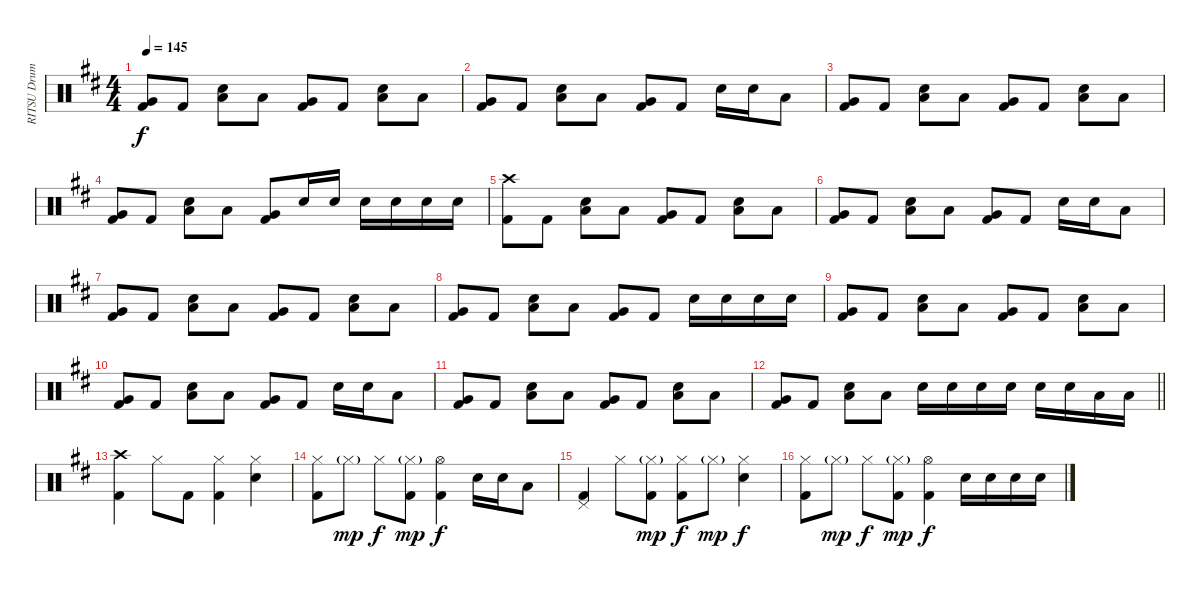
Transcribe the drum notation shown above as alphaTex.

\track ("RITSU Drums" "RITSU Drum") {instrument percussion}
\staff {score}
\articulation defaults
\ts (4 4)
\tempo 145
\clef neutral
\ks d
("Very Low Tom (hit)" "Kick (hit) 2").8{dy f} "Kick (hit) 2".8 ("Snare (hit) 2" "Low Floor Tom (hit)").8 "Low Tom (hit)".8 ("Very Low Tom (hit)" "Kick (hit) 2").8 "Kick (hit) 2".8 ("Snare (hit) 2" "Low Floor Tom (hit)").8 "Low Tom (hit)".8 |
("Very Low Tom (hit)" "Kick (hit) 2").8 "Kick (hit) 2".8 ("Snare (hit) 2" "Low Floor Tom (hit)").8 "Low Tom (hit)".8 ("Very Low Tom (hit)" "Kick (hit) 2").8 "Kick (hit) 2".8 "Snare (hit) 2".16 "Snare (hit) 2".16 "Low Tom (hit)".8 |
("Very Low Tom (hit)" "Kick (hit) 2").8 "Kick (hit) 2".8 ("Snare (hit) 2" "Low Floor Tom (hit)").8 "Low Tom (hit)".8 ("Very Low Tom (hit)" "Kick (hit) 2").8 "Kick (hit) 2".8 ("Snare (hit) 2" "Low Floor Tom (hit)").8 "Low Tom (hit)".8 |
("Very Low Tom (hit)" "Kick (hit) 2").8 "Kick (hit) 2".8 ("Snare (hit) 2" "Low Floor Tom (hit)").8 "Low Tom (hit)".8 ("Very Low Tom (hit)" "Kick (hit) 2").8 "Snare (hit) 2".16 "Snare (hit) 2".16 "Snare (hit) 2".16 "Snare (hit) 2".16 "Snare (hit) 2".16 "Snare (hit) 2".16 |
("Crash high (hit)" "Kick (hit) 2").8 "Kick (hit) 2".8 ("Snare (hit) 2" "Low Floor Tom (hit)").8 "Low Tom (hit)".8 ("Very Low Tom (hit)" "Kick (hit) 2").8 "Kick (hit) 2".8 ("Snare (hit) 2" "Low Floor Tom (hit)").8 "Low Tom (hit)".8 |
("Very Low Tom (hit)" "Kick (hit) 2").8 "Kick (hit) 2".8 ("Snare (hit) 2" "Low Floor Tom (hit)").8 "Low Tom (hit)".8 ("Very Low Tom (hit)" "Kick (hit) 2").8 "Kick (hit) 2".8 "Snare (hit) 2".16 "Snare (hit) 2".16 "Low Tom (hit)".8 |
("Very Low Tom (hit)" "Kick (hit) 2").8 "Kick (hit) 2".8 ("Snare (hit) 2" "Low Floor Tom (hit)").8 "Low Tom (hit)".8 ("Very Low Tom (hit)" "Kick (hit) 2").8 "Kick (hit) 2".8 ("Snare (hit) 2" "Low Floor Tom (hit)").8 "Low Tom (hit)".8 |
("Very Low Tom (hit)" "Kick (hit) 2").8 "Kick (hit) 2".8 ("Snare (hit) 2" "Low Floor Tom (hit)").8 "Low Tom (hit)".8 ("Very Low Tom (hit)" "Kick (hit) 2").8 "Kick (hit) 2".8 "Snare (hit) 2".16 "Snare (hit) 2".16 "Snare (hit) 2".16 "Snare (hit) 2".16 |
("Very Low Tom (hit)" "Kick (hit) 2").8 "Kick (hit) 2".8 ("Snare (hit) 2" "Low Floor Tom (hit)").8 "Low Tom (hit)".8 ("Very Low Tom (hit)" "Kick (hit) 2").8 "Kick (hit) 2".8 ("Snare (hit) 2" "Low Floor Tom (hit)").8 "Low Tom (hit)".8 |
("Very Low Tom (hit)" "Kick (hit) 2").8 "Kick (hit) 2".8 ("Snare (hit) 2" "Low Floor Tom (hit)").8 "Low Tom (hit)".8 ("Very Low Tom (hit)" "Kick (hit) 2").8 "Kick (hit) 2".8 "Snare (hit) 2".16 "Snare (hit) 2".16 "Low Tom (hit)".8 |
("Very Low Tom (hit)" "Kick (hit) 2").8 "Kick (hit) 2".8 ("Snare (hit) 2" "Low Floor Tom (hit)").8 "Low Tom (hit)".8 ("Very Low Tom (hit)" "Kick (hit) 2").8 "Kick (hit) 2".8 ("Snare (hit) 2" "Low Floor Tom (hit)").8 "Low Tom (hit)".8 |
\barLineRight lightlight
("Very Low Tom (hit)" "Kick (hit) 2").8 "Kick (hit) 2".8 ("Snare (hit) 2" "Low Floor Tom (hit)").8 "Low Tom (hit)".8 "Snare (hit) 2".16 "Snare (hit) 2".16 "Snare (hit) 2".16 "Snare (hit) 2".16 "Snare (hit) 2".16 "Snare (hit) 2".16 "Low Tom (hit)".16 "Low Tom (hit)".16 |
("Crash high (hit)" "Kick (hit) 2").4 "Hi-Hat (closed)".8 "Kick (hit) 2".8 ("Hi-Hat (closed)" "Kick (hit) 2").4 ("Hi-Hat (closed)" "Snare (hit) 2").4 |
("Hi-Hat (closed)" "Kick (hit) 2").8 "Hi-Hat (closed)"{g}.8{dy mp} "Hi-Hat (closed)".8{dy f} ("Hi-Hat (closed)"{g} "Kick (hit) 2").8{dy mp} ("Hi-Hat (open)" "Kick (hit) 2").4{dy f} "Snare (hit) 2".16 "Snare (hit) 2".16 "Low Tom (hit)".8 |
("Pedal Hi-Hat (hit)" "Kick (hit) 2").4 "Hi-Hat (closed)".8 ("Hi-Hat (closed)"{g} "Kick (hit) 2").8{dy mp} ("Hi-Hat (closed)" "Kick (hit) 2").8{dy f} "Hi-Hat (closed)"{g}.8{dy mp} ("Hi-Hat (closed)" "Snare (hit) 2").4{dy f} |
("Hi-Hat (closed)" "Kick (hit) 2").8 "Hi-Hat (closed)"{g}.8{dy mp} "Hi-Hat (closed)".8{dy f} ("Hi-Hat (closed)"{g} "Kick (hit) 2").8{dy mp} ("Hi-Hat (open)" "Kick (hit) 2").4{dy f} "Snare (hit) 2".16 "Snare (hit) 2".16 "Snare (hit) 2".16 "Snare (hit) 2".16
